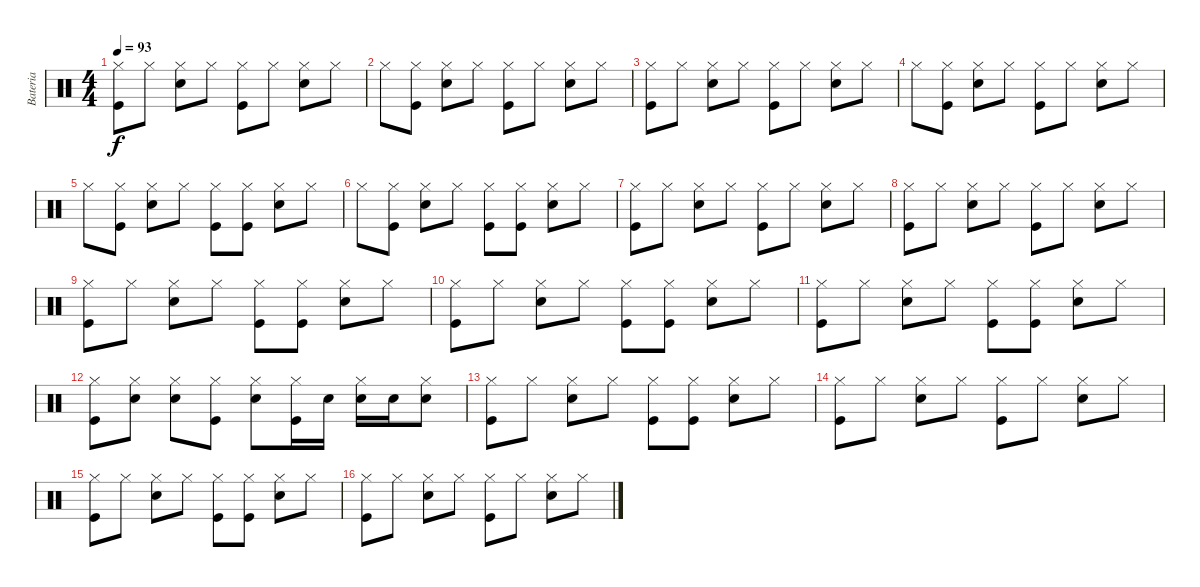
\track ("Bateria" "Bateria") {instrument percussion}
\staff {score}
\articulation defaults
\ts (4 4)
\tempo 93
\clef neutral
\ks c
("Hi-Hat (closed)" "Kick (hit)").8{dy f} "Hi-Hat (closed)".8 ("Hi-Hat (closed)" "Snare (hit) 2").8 "Hi-Hat (closed)".8 ("Hi-Hat (closed)" "Kick (hit)").8 "Hi-Hat (closed)".8 ("Hi-Hat (closed)" "Snare (hit) 2").8 "Hi-Hat (closed)".8 |
"Hi-Hat (closed)".8 ("Hi-Hat (closed)" "Kick (hit)").8 ("Hi-Hat (closed)" "Snare (hit) 2").8 "Hi-Hat (closed)".8 ("Hi-Hat (closed)" "Kick (hit)").8 "Hi-Hat (closed)".8 ("Hi-Hat (closed)" "Snare (hit) 2").8 "Hi-Hat (closed)".8 |
("Hi-Hat (closed)" "Kick (hit)").8 "Hi-Hat (closed)".8 ("Hi-Hat (closed)" "Snare (hit) 2").8 "Hi-Hat (closed)".8 ("Hi-Hat (closed)" "Kick (hit)").8 "Hi-Hat (closed)".8 ("Hi-Hat (closed)" "Snare (hit) 2").8 "Hi-Hat (closed)".8 |
"Hi-Hat (closed)".8 ("Hi-Hat (closed)" "Kick (hit)").8 ("Hi-Hat (closed)" "Snare (hit) 2").8 "Hi-Hat (closed)".8 ("Hi-Hat (closed)" "Kick (hit)").8 "Hi-Hat (closed)".8 ("Hi-Hat (closed)" "Snare (hit) 2").8 "Hi-Hat (closed)".8 |
"Hi-Hat (closed)".8 ("Hi-Hat (closed)" "Kick (hit)").8 ("Hi-Hat (closed)" "Snare (hit) 2").8 "Hi-Hat (closed)".8 ("Hi-Hat (closed)" "Kick (hit)").8 ("Hi-Hat (closed)" "Kick (hit)").8 ("Hi-Hat (closed)" "Snare (hit) 2").8 "Hi-Hat (closed)".8 |
"Hi-Hat (closed)".8 ("Hi-Hat (closed)" "Kick (hit)").8 ("Hi-Hat (closed)" "Snare (hit) 2").8 "Hi-Hat (closed)".8 ("Hi-Hat (closed)" "Kick (hit)").8 ("Hi-Hat (closed)" "Kick (hit)").8 ("Hi-Hat (closed)" "Snare (hit) 2").8 "Hi-Hat (closed)".8 |
("Hi-Hat (closed)" "Kick (hit)").8 "Hi-Hat (closed)".8 ("Hi-Hat (closed)" "Snare (hit) 2").8 "Hi-Hat (closed)".8 ("Hi-Hat (closed)" "Kick (hit)").8 "Hi-Hat (closed)".8 ("Hi-Hat (closed)" "Snare (hit) 2").8 "Hi-Hat (closed)".8 |
("Hi-Hat (closed)" "Kick (hit)").8 "Hi-Hat (closed)".8 ("Hi-Hat (closed)" "Snare (hit) 2").8 "Hi-Hat (closed)".8 ("Hi-Hat (closed)" "Kick (hit)").8 "Hi-Hat (closed)".8 ("Hi-Hat (closed)" "Snare (hit) 2").8 "Hi-Hat (closed)".8 |
("Hi-Hat (closed)" "Kick (hit)").8 "Hi-Hat (closed)".8 ("Hi-Hat (closed)" "Snare (hit) 2").8 "Hi-Hat (closed)".8 ("Hi-Hat (closed)" "Kick (hit)").8 ("Hi-Hat (closed)" "Kick (hit)").8 ("Hi-Hat (closed)" "Snare (hit) 2").8 "Hi-Hat (closed)".8 |
("Hi-Hat (closed)" "Kick (hit)").8 "Hi-Hat (closed)".8 ("Hi-Hat (closed)" "Snare (hit) 2").8 "Hi-Hat (closed)".8 ("Hi-Hat (closed)" "Kick (hit)").8 ("Hi-Hat (closed)" "Kick (hit)").8 ("Hi-Hat (closed)" "Snare (hit) 2").8 "Hi-Hat (closed)".8 |
("Hi-Hat (closed)" "Kick (hit)").8 "Hi-Hat (closed)".8 ("Hi-Hat (closed)" "Snare (hit) 2").8 "Hi-Hat (closed)".8 ("Hi-Hat (closed)" "Kick (hit)").8 ("Hi-Hat (closed)" "Kick (hit)").8 ("Hi-Hat (closed)" "Snare (hit) 2").8 "Hi-Hat (closed)".8 |
("Hi-Hat (closed)" "Kick (hit)").8 ("Hi-Hat (closed)" "Snare (hit) 2").8 ("Hi-Hat (closed)" "Snare (hit) 2").8 ("Hi-Hat (closed)" "Kick (hit)").8 ("Hi-Hat (closed)" "Snare (hit) 2").8 ("Hi-Hat (closed)" "Kick (hit)").16 "Snare (hit) 2".16 ("Hi-Hat (closed)" "Snare (hit) 2").16 "Snare (hit) 2".16 ("Hi-Hat (closed)" "Snare (hit) 2").8 |
("Hi-Hat (closed)" "Kick (hit)").8 "Hi-Hat (closed)".8 ("Hi-Hat (closed)" "Snare (hit) 2").8 "Hi-Hat (closed)".8 ("Hi-Hat (closed)" "Kick (hit)").8 ("Hi-Hat (closed)" "Kick (hit)").8 ("Hi-Hat (closed)" "Snare (hit) 2").8 "Hi-Hat (closed)".8 |
("Hi-Hat (closed)" "Kick (hit)").8 "Hi-Hat (closed)".8 ("Hi-Hat (closed)" "Snare (hit) 2").8 "Hi-Hat (closed)".8 ("Hi-Hat (closed)" "Kick (hit)").8 "Hi-Hat (closed)".8 ("Hi-Hat (closed)" "Snare (hit) 2").8 "Hi-Hat (closed)".8 |
("Hi-Hat (closed)" "Kick (hit)").8 "Hi-Hat (closed)".8 ("Hi-Hat (closed)" "Snare (hit) 2").8 "Hi-Hat (closed)".8 ("Hi-Hat (closed)" "Kick (hit)").8 ("Hi-Hat (closed)" "Kick (hit)").8 ("Hi-Hat (closed)" "Snare (hit) 2").8 "Hi-Hat (closed)".8 |
("Hi-Hat (closed)" "Kick (hit)").8 "Hi-Hat (closed)".8 ("Hi-Hat (closed)" "Snare (hit) 2").8 "Hi-Hat (closed)".8 ("Hi-Hat (closed)" "Kick (hit)").8 "Hi-Hat (closed)".8 ("Hi-Hat (closed)" "Snare (hit) 2").8 "Hi-Hat (closed)".8
